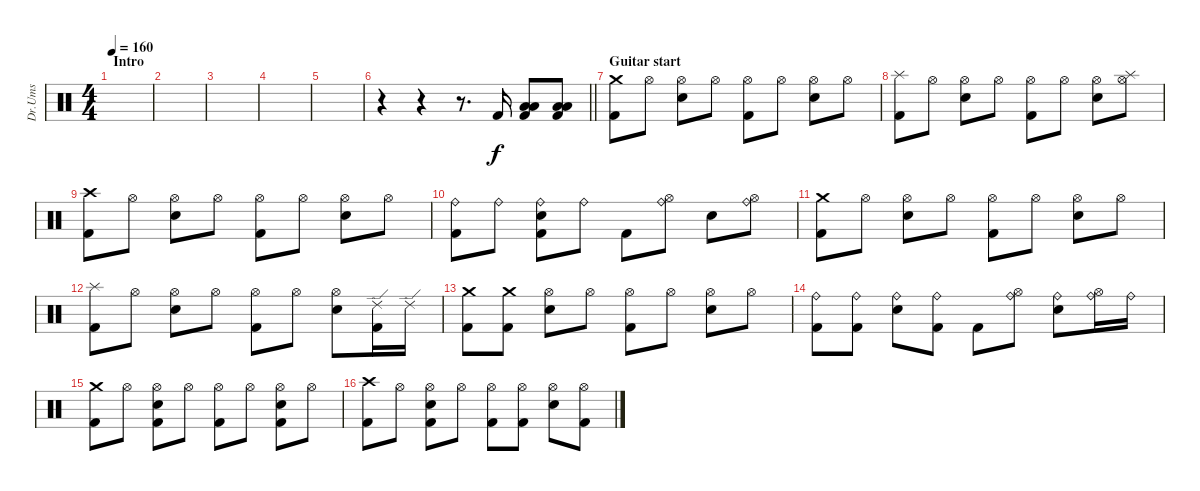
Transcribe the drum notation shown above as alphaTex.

\track ("Dr.Ums" "Dr.Ums") {instrument percussion}
\staff {score}
\articulation defaults
\ts (4 4)
\section ("" "Intro")
\tempo 160
\tempo 120
\tempo 160
\clef neutral
\ks c
|
|
|
|
|
\barLineRight lightlight
r.4 r.4 r.8{d} "Kick (hit) 2".16 ("Kick (hit) 2" "Low Floor Tom (hit)" "Low Tom (hit)").8 ("Kick (hit) 2" "Low Floor Tom (hit)" "Low Tom (hit)").8 |
\section ("" "Guitar start")
("Kick (hit) 2" "Crash medium (hit)").8 "Hi-Hat (open)".8 ("Snare (hit) 2" "Hi-Hat (open)").8 "Hi-Hat (open)".8 ("Kick (hit) 2" "Hi-Hat (open)").8 "Hi-Hat (open)".8 ("Snare (hit) 2" "Hi-Hat (open)").8 "Hi-Hat (open)".8 |
("Kick (hit) 2" "Splash (hit)").8 "Hi-Hat (open)".8 ("Snare (hit) 2" "Hi-Hat (open)").8 "Hi-Hat (open)".8 ("Kick (hit) 2" "Hi-Hat (open)").8 "Hi-Hat (open)".8 ("Snare (hit) 2" "Hi-Hat (open)").8 ("Hi-Hat (open)" "Splash (hit)").8 |
("Kick (hit) 2" "Crash high (hit)").8 "Hi-Hat (open)".8 ("Snare (hit) 2" "Hi-Hat (open)").8 "Hi-Hat (open)".8 ("Kick (hit) 2" "Hi-Hat (open)").8 "Hi-Hat (open)".8 ("Snare (hit) 2" "Hi-Hat (open)").8 "Hi-Hat (open)".8 |
("Kick (hit) 2" "Ride (bell)").8 "Ride (bell)".8 ("Snare (hit) 2" "Kick (hit) 2" "Ride (bell)").8 "Ride (bell)".8 "Kick (hit) 2".8 ("Hi-Hat (open)" "Ride (bell)").8 "Snare (hit) 2".8 ("Hi-Hat (open)" "Ride (bell)").8 |
("Kick (hit) 2" "Crash medium (hit)").8 "Hi-Hat (open)".8 ("Snare (hit) 2" "Hi-Hat (open)").8 "Hi-Hat (open)".8 ("Kick (hit) 2" "Hi-Hat (open)").8 "Hi-Hat (open)".8 ("Snare (hit) 2" "Hi-Hat (open)").8 "Hi-Hat (open)".8 |
("Kick (hit) 2" "Splash (hit)").8 "Hi-Hat (open)".8 ("Snare (hit) 2" "Hi-Hat (open)").8 "Hi-Hat (open)".8 ("Kick (hit) 2" "Hi-Hat (open)").8 "Hi-Hat (open)".8 ("Snare (hit) 2" "Hi-Hat (open)").8 ("Kick (hit) 2" "Ride (edge) 2").16 "Ride (edge) 2".16 |
("Kick (hit) 2" "Crash medium (hit)").8 ("Kick (hit) 2" "Crash medium (hit)").8 ("Snare (hit) 2" "Hi-Hat (open)").8 "Hi-Hat (open)".8 ("Kick (hit) 2" "Hi-Hat (open)").8 "Hi-Hat (open)".8 ("Snare (hit) 2" "Hi-Hat (open)").8 "Hi-Hat (open)".8 |
("Kick (hit) 2" "Ride (bell)").8 ("Kick (hit) 2" "Ride (bell)").8 ("Snare (hit) 2" "Ride (bell)").8 ("Kick (hit) 2" "Ride (bell)").8 "Kick (hit) 2".8 ("Hi-Hat (open)" "Ride (bell)").8 ("Snare (hit) 2" "Ride (bell)").8 ("Hi-Hat (open)" "Ride (bell)").16 "Ride (bell)".16 |
("Kick (hit) 2" "Crash medium (hit)").8 "Hi-Hat (open)".8 ("Snare (hit) 2" "Hi-Hat (open)" "Kick (hit) 2").8 "Hi-Hat (open)".8 ("Kick (hit) 2" "Hi-Hat (open)").8 "Hi-Hat (open)".8 ("Snare (hit) 2" "Hi-Hat (open)" "Kick (hit) 2").8 "Hi-Hat (open)".8 |
("Kick (hit) 2" "Crash high (hit)").8 "Hi-Hat (open)".8 ("Snare (hit) 2" "Hi-Hat (open)" "Kick (hit) 2").8 "Hi-Hat (open)".8 ("Kick (hit) 2" "Hi-Hat (open)").8 ("Hi-Hat (open)" "Kick (hit) 2").8 ("Snare (hit) 2" "Hi-Hat (open)").8 ("Hi-Hat (open)" "Kick (hit) 2").8
